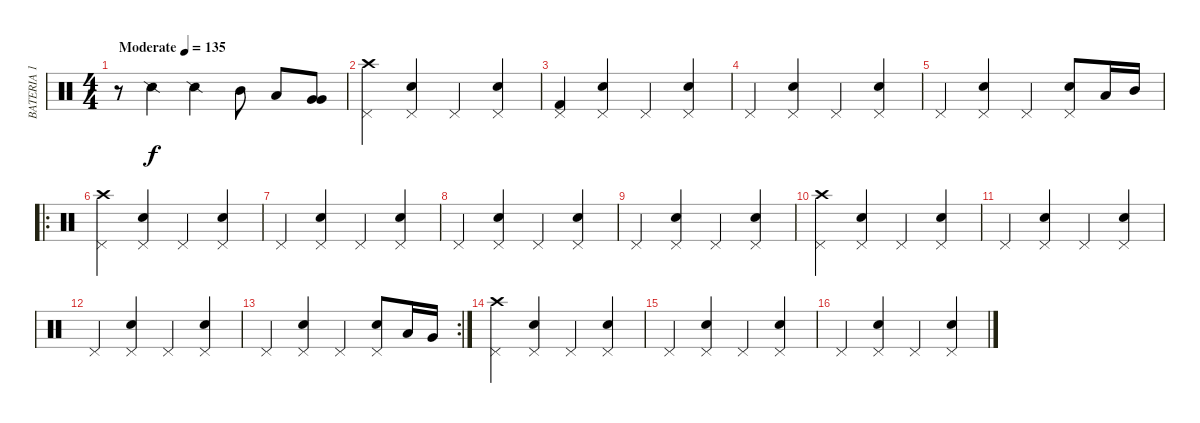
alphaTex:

\track ("BATERIA 1" "BATERIA 1") {instrument percussion}
\staff {score}
\articulation defaults
\ts (4 4)
\tempo (135 "Moderate")
\clef neutral
\ks c
r.8{dy f} "Snare (side stick) 2".4 "Snare (side stick) 2".4 "Mid Tom (hit)".8 "Low Tom (hit)".8 ("Very Low Tom (hit)" "Very Low Tom (hit)").8 |
("Pedal Hi-Hat (hit)" "Crash high (hit)").4 ("Electric Snare (hit)" "Pedal Hi-Hat (hit)").4 "Pedal Hi-Hat (hit)".4 ("Electric Snare (hit)" "Pedal Hi-Hat (hit)").4 |
("Pedal Hi-Hat (hit)" "Kick (hit) 2").4 ("Electric Snare (hit)" "Pedal Hi-Hat (hit)").4 "Pedal Hi-Hat (hit)".4 ("Electric Snare (hit)" "Pedal Hi-Hat (hit)").4 |
"Pedal Hi-Hat (hit)".4 ("Electric Snare (hit)" "Pedal Hi-Hat (hit)").4 "Pedal Hi-Hat (hit)".4 ("Electric Snare (hit)" "Pedal Hi-Hat (hit)").4 |
"Pedal Hi-Hat (hit)".4 ("Electric Snare (hit)" "Pedal Hi-Hat (hit)").4 "Pedal Hi-Hat (hit)".4 ("Electric Snare (hit)" "Pedal Hi-Hat (hit)").8 "Low Tom (hit)".16 "Mid Tom (hit)".16 |
\ro
("Pedal Hi-Hat (hit)" "Crash high (hit)").4 ("Electric Snare (hit)" "Pedal Hi-Hat (hit)").4 "Pedal Hi-Hat (hit)".4 ("Electric Snare (hit)" "Pedal Hi-Hat (hit)").4 |
"Pedal Hi-Hat (hit)".4 ("Electric Snare (hit)" "Pedal Hi-Hat (hit)").4 "Pedal Hi-Hat (hit)".4 ("Electric Snare (hit)" "Pedal Hi-Hat (hit)").4 |
"Pedal Hi-Hat (hit)".4 ("Electric Snare (hit)" "Pedal Hi-Hat (hit)").4 "Pedal Hi-Hat (hit)".4 ("Electric Snare (hit)" "Pedal Hi-Hat (hit)").4 |
"Pedal Hi-Hat (hit)".4 ("Electric Snare (hit)" "Pedal Hi-Hat (hit)").4 "Pedal Hi-Hat (hit)".4 ("Electric Snare (hit)" "Pedal Hi-Hat (hit)").4 |
("Pedal Hi-Hat (hit)" "Crash high (hit)").4 ("Electric Snare (hit)" "Pedal Hi-Hat (hit)").4 "Pedal Hi-Hat (hit)".4 ("Electric Snare (hit)" "Pedal Hi-Hat (hit)").4 |
"Pedal Hi-Hat (hit)".4 ("Electric Snare (hit)" "Pedal Hi-Hat (hit)").4 "Pedal Hi-Hat (hit)".4 ("Electric Snare (hit)" "Pedal Hi-Hat (hit)").4 |
"Pedal Hi-Hat (hit)".4 ("Electric Snare (hit)" "Pedal Hi-Hat (hit)").4 "Pedal Hi-Hat (hit)".4 ("Electric Snare (hit)" "Pedal Hi-Hat (hit)").4 |
\rc 2 "Pedal Hi-Hat (hit)".4
("Electric Snare (hit)" "Pedal Hi-Hat (hit)").4 "Pedal Hi-Hat (hit)".4 ("Electric Snare (hit)" "Pedal Hi-Hat (hit)").8 "Low Tom (hit)".16 "Very Low Tom (hit)".16 |
("Pedal Hi-Hat (hit)" "Crash high (hit)").4 ("Electric Snare (hit)" "Pedal Hi-Hat (hit)").4 "Pedal Hi-Hat (hit)".4 ("Electric Snare (hit)" "Pedal Hi-Hat (hit)").4 |
"Pedal Hi-Hat (hit)".4 ("Electric Snare (hit)" "Pedal Hi-Hat (hit)").4 "Pedal Hi-Hat (hit)".4 ("Electric Snare (hit)" "Pedal Hi-Hat (hit)").4 |
"Pedal Hi-Hat (hit)".4 ("Electric Snare (hit)" "Pedal Hi-Hat (hit)").4 "Pedal Hi-Hat (hit)".4 ("Electric Snare (hit)" "Pedal Hi-Hat (hit)").4
